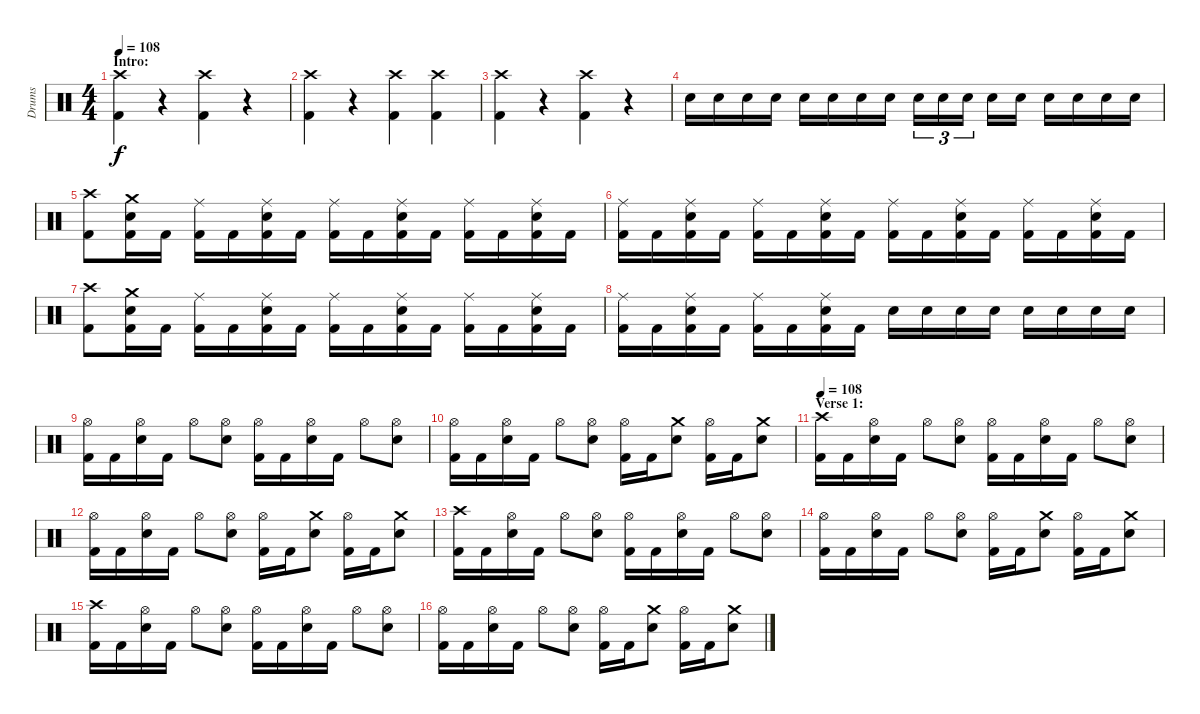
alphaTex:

\track ("Drums" "Drums") {instrument percussion}
\staff {score}
\articulation defaults
\ts (4 4)
\section ("" "Intro:")
\tempo 108
\clef neutral
\ks c
("Crash high (hit)" "Kick (hit) 2").4{dy f} r.4 ("Crash high (hit)" "Kick (hit) 2").4 r.4 |
("Crash high (hit)" "Kick (hit) 2").4 r.4 ("Crash high (hit)" "Kick (hit) 2").4 ("Crash high (hit)" "Kick (hit) 2").4 |
("Crash high (hit)" "Kick (hit) 2").4 r.4 ("Crash high (hit)" "Kick (hit) 2").4 r.4 |
"Electric Snare (hit)".16 "Electric Snare (hit)".16 "Electric Snare (hit)".16 "Electric Snare (hit)".16 "Electric Snare (hit)".16 "Electric Snare (hit)".16 "Electric Snare (hit)".16 "Electric Snare (hit)".16 "Electric Snare (hit)".16{tu (3 2)} "Electric Snare (hit)".16{tu (3 2)} "Electric Snare (hit)".16{tu (3 2)} "Electric Snare (hit)".16 "Electric Snare (hit)".16 "Electric Snare (hit)".16 "Electric Snare (hit)".16 "Electric Snare (hit)".16 "Electric Snare (hit)".16 |
("Crash high (hit)" "Kick (hit) 2").8 ("Crash medium (hit)" "Electric Snare (hit)" "Kick (hit) 2").16 "Kick (hit) 2".16 ("Ride (middle)" "Kick (hit) 2").16 "Kick (hit) 2".16 ("Ride (middle)" "Electric Snare (hit)" "Kick (hit) 2").16 "Kick (hit) 2".16 ("Ride (middle)" "Kick (hit) 2").16 "Kick (hit) 2".16 ("Ride (middle)" "Electric Snare (hit)" "Kick (hit) 2").16 "Kick (hit) 2".16 ("Ride (middle)" "Kick (hit) 2").16 "Kick (hit) 2".16 ("Ride (middle)" "Electric Snare (hit)" "Kick (hit) 2").16 "Kick (hit) 2".16 |
("Ride (middle)" "Kick (hit) 2").16 "Kick (hit) 2".16 ("Ride (middle)" "Electric Snare (hit)" "Kick (hit) 2").16 "Kick (hit) 2".16 ("Ride (middle)" "Kick (hit) 2").16 "Kick (hit) 2".16 ("Ride (middle)" "Electric Snare (hit)" "Kick (hit) 2").16 "Kick (hit) 2".16 ("Ride (middle)" "Kick (hit) 2").16 "Kick (hit) 2".16 ("Ride (middle)" "Electric Snare (hit)" "Kick (hit) 2").16 "Kick (hit) 2".16 ("Ride (middle)" "Kick (hit) 2").16 "Kick (hit) 2".16 ("Ride (middle)" "Electric Snare (hit)" "Kick (hit) 2").16 "Kick (hit) 2".16 |
("Crash high (hit)" "Kick (hit) 2").8 ("Crash medium (hit)" "Electric Snare (hit)" "Kick (hit) 2").16 "Kick (hit) 2".16 ("Ride (middle)" "Kick (hit) 2").16 "Kick (hit) 2".16 ("Ride (middle)" "Electric Snare (hit)" "Kick (hit) 2").16 "Kick (hit) 2".16 ("Ride (middle)" "Kick (hit) 2").16 "Kick (hit) 2".16 ("Ride (middle)" "Electric Snare (hit)" "Kick (hit) 2").16 "Kick (hit) 2".16 ("Ride (middle)" "Kick (hit) 2").16 "Kick (hit) 2".16 ("Ride (middle)" "Electric Snare (hit)" "Kick (hit) 2").16 "Kick (hit) 2".16 |
("Ride (middle)" "Kick (hit) 2").16 "Kick (hit) 2".16 ("Ride (middle)" "Electric Snare (hit)" "Kick (hit) 2").16 "Kick (hit) 2".16 ("Ride (middle)" "Kick (hit) 2").16 "Kick (hit) 2".16 ("Ride (middle)" "Electric Snare (hit)" "Kick (hit) 2").16 "Kick (hit) 2".16 "Electric Snare (hit)".16 "Electric Snare (hit)".16 "Electric Snare (hit)".16 "Electric Snare (hit)".16 "Electric Snare (hit)".16 "Electric Snare (hit)".16 "Electric Snare (hit)".16 "Electric Snare (hit)".16 |
("Hi-Hat (open)" "Kick (hit) 2").16 "Kick (hit) 2".16 ("Hi-Hat (open)" "Electric Snare (hit)").16 "Kick (hit) 2".16 "Hi-Hat (open)".8 ("Hi-Hat (open)" "Electric Snare (hit)").8 ("Hi-Hat (open)" "Kick (hit) 2").16 "Kick (hit) 2".16 ("Hi-Hat (open)" "Electric Snare (hit)").16 "Kick (hit) 2".16 "Hi-Hat (open)".8 ("Hi-Hat (open)" "Electric Snare (hit)").8 |
("Hi-Hat (open)" "Kick (hit) 2").16 "Kick (hit) 2".16 ("Hi-Hat (open)" "Electric Snare (hit)").16 "Kick (hit) 2".16 "Hi-Hat (open)".8 ("Hi-Hat (open)" "Electric Snare (hit)").8 ("Hi-Hat (open)" "Kick (hit) 2").16 "Kick (hit) 2".16 ("Crash medium (hit)" "Electric Snare (hit)").8 ("Hi-Hat (open)" "Kick (hit) 2").16 "Kick (hit) 2".16 ("Crash medium (hit)" "Electric Snare (hit)").8 |
\section ("" "Verse 1:")
\tempo 108
("Crash high (hit)" "Kick (hit) 2").16 "Kick (hit) 2".16 ("Hi-Hat (open)" "Electric Snare (hit)").16 "Kick (hit) 2".16 "Hi-Hat (open)".8 ("Hi-Hat (open)" "Electric Snare (hit)").8 ("Hi-Hat (open)" "Kick (hit) 2").16 "Kick (hit) 2".16 ("Hi-Hat (open)" "Electric Snare (hit)").16 "Kick (hit) 2".16 "Hi-Hat (open)".8 ("Hi-Hat (open)" "Electric Snare (hit)").8 |
("Hi-Hat (open)" "Kick (hit) 2").16 "Kick (hit) 2".16 ("Hi-Hat (open)" "Electric Snare (hit)").16 "Kick (hit) 2".16 "Hi-Hat (open)".8 ("Hi-Hat (open)" "Electric Snare (hit)").8 ("Hi-Hat (open)" "Kick (hit) 2").16 "Kick (hit) 2".16 ("Crash medium (hit)" "Electric Snare (hit)").8 ("Hi-Hat (open)" "Kick (hit) 2").16 "Kick (hit) 2".16 ("Crash medium (hit)" "Electric Snare (hit)").8 |
("Crash high (hit)" "Kick (hit) 2").16 "Kick (hit) 2".16 ("Hi-Hat (open)" "Electric Snare (hit)").16 "Kick (hit) 2".16 "Hi-Hat (open)".8 ("Hi-Hat (open)" "Electric Snare (hit)").8 ("Hi-Hat (open)" "Kick (hit) 2").16 "Kick (hit) 2".16 ("Hi-Hat (open)" "Electric Snare (hit)").16 "Kick (hit) 2".16 "Hi-Hat (open)".8 ("Hi-Hat (open)" "Electric Snare (hit)").8 |
("Hi-Hat (open)" "Kick (hit) 2").16 "Kick (hit) 2".16 ("Hi-Hat (open)" "Electric Snare (hit)").16 "Kick (hit) 2".16 "Hi-Hat (open)".8 ("Hi-Hat (open)" "Electric Snare (hit)").8 ("Hi-Hat (open)" "Kick (hit) 2").16 "Kick (hit) 2".16 ("Crash medium (hit)" "Electric Snare (hit)").8 ("Hi-Hat (open)" "Kick (hit) 2").16 "Kick (hit) 2".16 ("Crash medium (hit)" "Electric Snare (hit)").8 |
("Crash high (hit)" "Kick (hit) 2").16 "Kick (hit) 2".16 ("Hi-Hat (open)" "Electric Snare (hit)").16 "Kick (hit) 2".16 "Hi-Hat (open)".8 ("Hi-Hat (open)" "Electric Snare (hit)").8 ("Hi-Hat (open)" "Kick (hit) 2").16 "Kick (hit) 2".16 ("Hi-Hat (open)" "Electric Snare (hit)").16 "Kick (hit) 2".16 "Hi-Hat (open)".8 ("Hi-Hat (open)" "Electric Snare (hit)").8 |
("Hi-Hat (open)" "Kick (hit) 2").16 "Kick (hit) 2".16 ("Hi-Hat (open)" "Electric Snare (hit)").16 "Kick (hit) 2".16 "Hi-Hat (open)".8 ("Hi-Hat (open)" "Electric Snare (hit)").8 ("Hi-Hat (open)" "Kick (hit) 2").16 "Kick (hit) 2".16 ("Crash medium (hit)" "Electric Snare (hit)").8 ("Hi-Hat (open)" "Kick (hit) 2").16 "Kick (hit) 2".16 ("Crash medium (hit)" "Electric Snare (hit)").8
